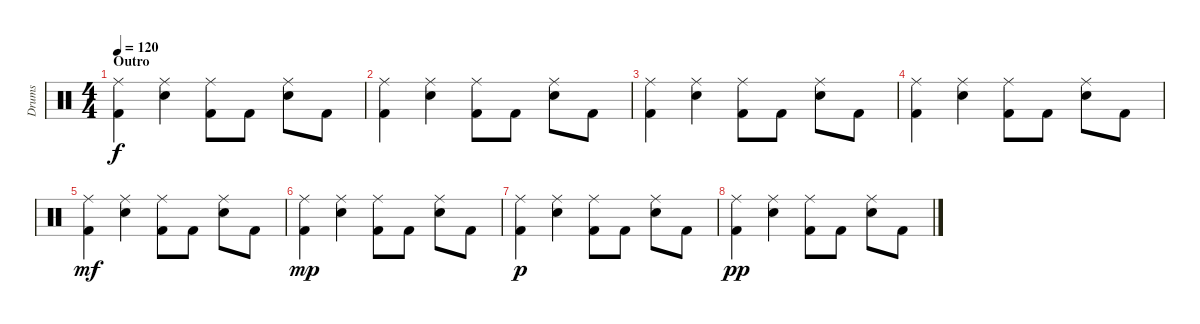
\track ("Drums" "Drums") {instrument percussion}
\staff {score}
\articulation defaults
\ts (4 4)
\section ("" "Outro")
\tempo 120
\clef neutral
\ks c
("Ride (middle)" "Kick (hit) 2").4{dy f} ("Ride (middle)" "Electric Snare (hit)").4 ("Ride (middle)" "Kick (hit) 2").8 "Kick (hit) 2".8 ("Ride (middle)" "Electric Snare (hit)").8 "Kick (hit) 2".8 |
("Ride (middle)" "Kick (hit) 2").4 ("Ride (middle)" "Electric Snare (hit)").4 ("Ride (middle)" "Kick (hit) 2").8 "Kick (hit) 2".8 ("Ride (middle)" "Electric Snare (hit)").8 "Kick (hit) 2".8 |
("Ride (middle)" "Kick (hit) 2").4 ("Ride (middle)" "Electric Snare (hit)").4 ("Ride (middle)" "Kick (hit) 2").8 "Kick (hit) 2".8 ("Ride (middle)" "Electric Snare (hit)").8 "Kick (hit) 2".8 |
("Ride (middle)" "Kick (hit) 2").4 ("Ride (middle)" "Electric Snare (hit)").4 ("Ride (middle)" "Kick (hit) 2").8 "Kick (hit) 2".8 ("Ride (middle)" "Electric Snare (hit)").8 "Kick (hit) 2".8 |
("Ride (middle)" "Kick (hit) 2").4{dy mf} ("Ride (middle)" "Electric Snare (hit)").4 ("Ride (middle)" "Kick (hit) 2").8 "Kick (hit) 2".8 ("Ride (middle)" "Electric Snare (hit)").8 "Kick (hit) 2".8 |
("Ride (middle)" "Kick (hit) 2").4{dy mp} ("Ride (middle)" "Electric Snare (hit)").4 ("Ride (middle)" "Kick (hit) 2").8 "Kick (hit) 2".8 ("Ride (middle)" "Electric Snare (hit)").8 "Kick (hit) 2".8 |
("Ride (middle)" "Kick (hit) 2").4{dy p} ("Ride (middle)" "Electric Snare (hit)").4 ("Ride (middle)" "Kick (hit) 2").8 "Kick (hit) 2".8 ("Ride (middle)" "Electric Snare (hit)").8 "Kick (hit) 2".8 |
("Ride (middle)" "Kick (hit) 2").4{dy pp} ("Ride (middle)" "Electric Snare (hit)").4 ("Ride (middle)" "Kick (hit) 2").8 "Kick (hit) 2".8 ("Ride (middle)" "Electric Snare (hit)").8 "Kick (hit) 2".8
